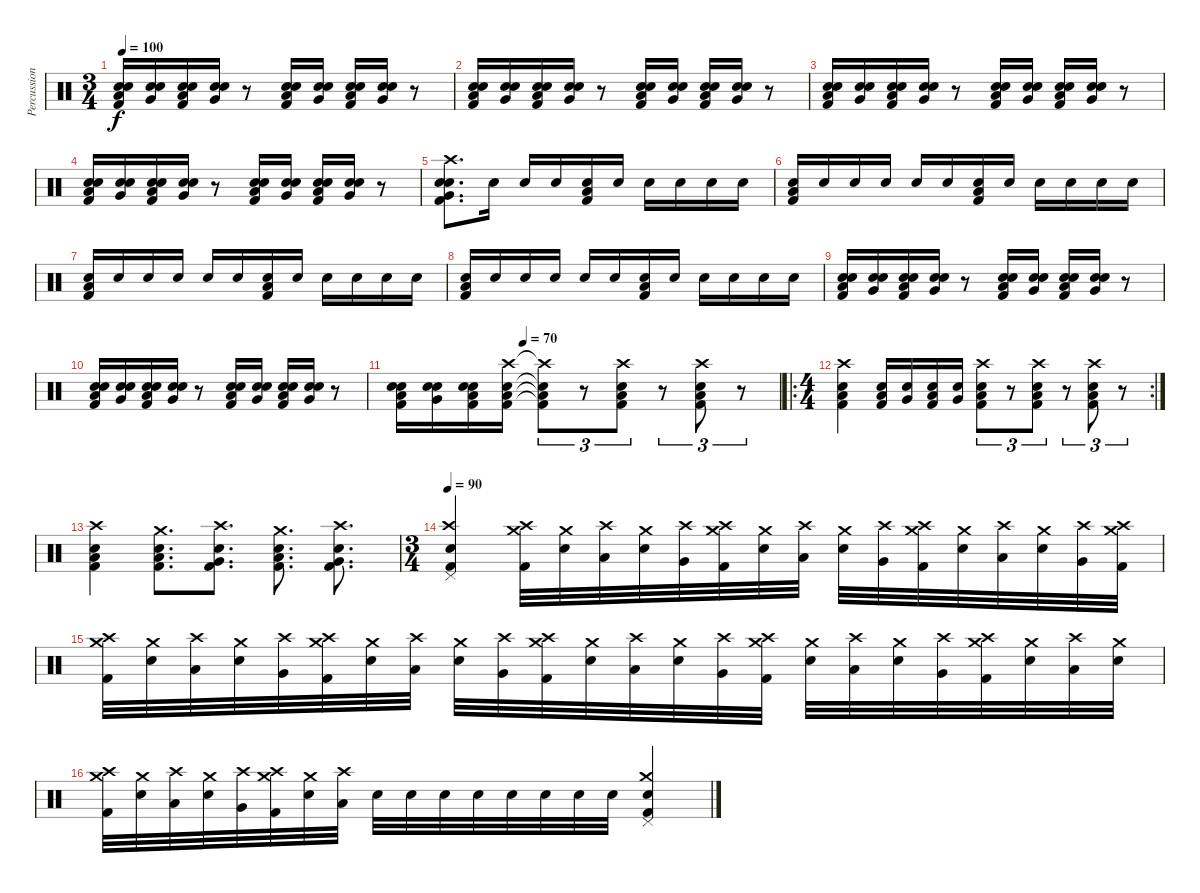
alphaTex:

\track ("Percussion" "Percussion") {instrument percussion}
\staff {score}
\articulation defaults
\ts (3 4)
\tempo 100
\clef neutral
\ks c
("Low Floor Tom (hit)" "Snare (hit) 2" "Electric Snare (hit)" "Kick (hit) 2").16{dy f} ("Very Low Tom (hit)" "Snare (hit) 2" "Electric Snare (hit)").16 ("Low Floor Tom (hit)" "Snare (hit) 2" "Electric Snare (hit)" "Kick (hit) 2").16 ("Very Low Tom (hit)" "Snare (hit) 2" "Electric Snare (hit)").16 r.8 ("Low Floor Tom (hit)" "Snare (hit) 2" "Electric Snare (hit)" "Kick (hit) 2").16 ("Very Low Tom (hit)" "Snare (hit) 2" "Electric Snare (hit)").16 ("Low Floor Tom (hit)" "Snare (hit) 2" "Electric Snare (hit)" "Kick (hit) 2").16 ("Very Low Tom (hit)" "Snare (hit) 2" "Electric Snare (hit)").16 r.8 |
("Low Floor Tom (hit)" "Snare (hit) 2" "Electric Snare (hit)" "Kick (hit) 2").16 ("Very Low Tom (hit)" "Snare (hit) 2" "Electric Snare (hit)").16 ("Low Floor Tom (hit)" "Snare (hit) 2" "Electric Snare (hit)" "Kick (hit) 2").16 ("Very Low Tom (hit)" "Snare (hit) 2" "Electric Snare (hit)").16 r.8 ("Low Floor Tom (hit)" "Snare (hit) 2" "Electric Snare (hit)" "Kick (hit) 2").16 ("Very Low Tom (hit)" "Snare (hit) 2" "Electric Snare (hit)").16 ("Low Floor Tom (hit)" "Snare (hit) 2" "Electric Snare (hit)" "Kick (hit) 2").16 ("Very Low Tom (hit)" "Snare (hit) 2" "Electric Snare (hit)").16 r.8 |
("Low Floor Tom (hit)" "Snare (hit) 2" "Electric Snare (hit)" "Kick (hit) 2").16 ("Very Low Tom (hit)" "Snare (hit) 2" "Electric Snare (hit)").16 ("Low Floor Tom (hit)" "Snare (hit) 2" "Electric Snare (hit)" "Kick (hit) 2").16 ("Very Low Tom (hit)" "Snare (hit) 2" "Electric Snare (hit)").16 r.8 ("Low Floor Tom (hit)" "Snare (hit) 2" "Electric Snare (hit)" "Kick (hit) 2").16 ("Very Low Tom (hit)" "Snare (hit) 2" "Electric Snare (hit)").16 ("Low Floor Tom (hit)" "Snare (hit) 2" "Electric Snare (hit)" "Kick (hit) 2").16 ("Very Low Tom (hit)" "Snare (hit) 2" "Electric Snare (hit)").16 r.8 |
("Low Floor Tom (hit)" "Snare (hit) 2" "Electric Snare (hit)" "Kick (hit) 2").16 ("Very Low Tom (hit)" "Snare (hit) 2" "Electric Snare (hit)").16 ("Low Floor Tom (hit)" "Snare (hit) 2" "Electric Snare (hit)" "Kick (hit) 2").16 ("Very Low Tom (hit)" "Snare (hit) 2" "Electric Snare (hit)").16 r.8 ("Low Floor Tom (hit)" "Snare (hit) 2" "Electric Snare (hit)" "Kick (hit) 2").16 ("Very Low Tom (hit)" "Snare (hit) 2" "Electric Snare (hit)").16 ("Low Floor Tom (hit)" "Snare (hit) 2" "Electric Snare (hit)" "Kick (hit) 2").16 ("Very Low Tom (hit)" "Snare (hit) 2" "Electric Snare (hit)").16 r.8 |
("Crash high (hit)" "Very Low Tom (hit)" "Snare (hit) 2" "Electric Snare (hit)" "Kick (hit) 2").8{d} "Snare (hit) 2".16 "Snare (hit) 2".16 "Snare (hit) 2".16 ("Low Floor Tom (hit)" "Snare (hit) 2" "Kick (hit) 2").16 "Snare (hit) 2".16 "Snare (hit) 2".16 "Snare (hit) 2".16 "Snare (hit) 2".16 "Snare (hit) 2".16 |
("Low Floor Tom (hit)" "Snare (hit) 2" "Kick (hit) 2").16 "Snare (hit) 2".16 "Snare (hit) 2".16 "Snare (hit) 2".16 "Snare (hit) 2".16 "Snare (hit) 2".16 ("Low Floor Tom (hit)" "Snare (hit) 2" "Kick (hit) 2").16 "Snare (hit) 2".16 "Snare (hit) 2".16 "Snare (hit) 2".16 "Snare (hit) 2".16 "Snare (hit) 2".16 |
("Low Floor Tom (hit)" "Snare (hit) 2" "Kick (hit) 2").16 "Snare (hit) 2".16 "Snare (hit) 2".16 "Snare (hit) 2".16 "Snare (hit) 2".16 "Snare (hit) 2".16 ("Low Floor Tom (hit)" "Snare (hit) 2" "Kick (hit) 2").16 "Snare (hit) 2".16 "Snare (hit) 2".16 "Snare (hit) 2".16 "Snare (hit) 2".16 "Snare (hit) 2".16 |
("Low Floor Tom (hit)" "Snare (hit) 2" "Kick (hit) 2").16 "Snare (hit) 2".16 "Snare (hit) 2".16 "Snare (hit) 2".16 "Snare (hit) 2".16 "Snare (hit) 2".16 ("Low Floor Tom (hit)" "Snare (hit) 2" "Kick (hit) 2").16 "Snare (hit) 2".16 "Snare (hit) 2".16 "Snare (hit) 2".16 "Snare (hit) 2".16 "Snare (hit) 2".16 |
("Low Floor Tom (hit)" "Snare (hit) 2" "Electric Snare (hit)" "Kick (hit) 2").16 ("Very Low Tom (hit)" "Snare (hit) 2" "Electric Snare (hit)").16 ("Low Floor Tom (hit)" "Snare (hit) 2" "Electric Snare (hit)" "Kick (hit) 2").16 ("Very Low Tom (hit)" "Snare (hit) 2" "Electric Snare (hit)").16 r.8 ("Low Floor Tom (hit)" "Snare (hit) 2" "Electric Snare (hit)" "Kick (hit) 2").16 ("Very Low Tom (hit)" "Snare (hit) 2" "Electric Snare (hit)").16 ("Low Floor Tom (hit)" "Snare (hit) 2" "Electric Snare (hit)" "Kick (hit) 2").16 ("Very Low Tom (hit)" "Snare (hit) 2" "Electric Snare (hit)").16 r.8 |
("Low Floor Tom (hit)" "Snare (hit) 2" "Electric Snare (hit)" "Kick (hit) 2").16 ("Very Low Tom (hit)" "Snare (hit) 2" "Electric Snare (hit)").16 ("Low Floor Tom (hit)" "Snare (hit) 2" "Electric Snare (hit)" "Kick (hit) 2").16 ("Very Low Tom (hit)" "Snare (hit) 2" "Electric Snare (hit)").16 r.8 ("Low Floor Tom (hit)" "Snare (hit) 2" "Electric Snare (hit)" "Kick (hit) 2").16 ("Very Low Tom (hit)" "Snare (hit) 2" "Electric Snare (hit)").16 ("Low Floor Tom (hit)" "Snare (hit) 2" "Electric Snare (hit)" "Kick (hit) 2").16 ("Very Low Tom (hit)" "Snare (hit) 2" "Electric Snare (hit)").16 r.8 |
\tempo (70 0.3333333333333333)
("Low Floor Tom (hit)" "Snare (hit) 2" "Electric Snare (hit)" "Kick (hit) 2").16 ("Very Low Tom (hit)" "Snare (hit) 2" "Electric Snare (hit)").16 ("Low Floor Tom (hit)" "Snare (hit) 2" "Electric Snare (hit)" "Kick (hit) 2").16 ("Crash high (hit)" "Low Floor Tom (hit)" "Snare (hit) 2" "Kick (hit) 2").16 ("Crash high (hit)"{t} "Low Floor Tom (hit)"{t} "Snare (hit) 2"{t} "Kick (hit) 2"{t}).8{tu (3 2)} r.8{tu (3 2)} ("Crash high (hit)" "Low Floor Tom (hit)" "Snare (hit) 2" "Kick (hit) 2").8{tu (3 2)} r.8{tu (3 2)} ("Crash high (hit)" "Low Floor Tom (hit)" "Snare (hit) 2" "Kick (hit) 2").8{tu (3 2)} r.8{tu (3 2)} |
\ro
\rc 2
\ts (4 4)
("Crash high (hit)" "Low Floor Tom (hit)" "Snare (hit) 2" "Kick (hit) 2").4 ("Low Floor Tom (hit)" "Snare (hit) 2" "Kick (hit) 2").16 ("Very Low Tom (hit)" "Snare (hit) 2").16 ("Low Floor Tom (hit)" "Snare (hit) 2" "Kick (hit) 2").16 ("Very Low Tom (hit)" "Snare (hit) 2").16 ("Crash high (hit)" "Low Floor Tom (hit)" "Snare (hit) 2" "Kick (hit) 2").8{tu (3 2)} r.8{tu (3 2)} ("Crash high (hit)" "Low Floor Tom (hit)" "Snare (hit) 2" "Kick (hit) 2").8{tu (3 2)} r.8{tu (3 2)} ("Crash high (hit)" "Low Floor Tom (hit)" "Snare (hit) 2" "Kick (hit) 2").8{tu (3 2)} r.8{tu (3 2)} |
("Crash high (hit)" "Low Floor Tom (hit)" "Snare (hit) 2" "Kick (hit) 2").4 ("Crash medium (hit)" "Low Floor Tom (hit)" "Snare (hit) 2" "Kick (hit) 2").8{d} ("Crash high (hit)" "Very Low Tom (hit)" "Snare (hit) 2" "Kick (hit) 2").8{d} ("Crash medium (hit)" "Low Floor Tom (hit)" "Snare (hit) 2" "Kick (hit) 2").8{d} ("Crash high (hit)" "Very Low Tom (hit)" "Snare (hit) 2" "Kick (hit) 2").8{d} |
\ts (3 4)
\tempo 90
("Crash high (hit)" "Pedal Hi-Hat (hit)" "Snare (hit) 2" "Kick (hit) 2").4 ("Crash high (hit)" "Crash medium (hit)" "Kick (hit) 2").32 ("Crash medium (hit)" "Snare (hit) 2").32 ("Crash high (hit)" "Low Floor Tom (hit)").32 ("Crash medium (hit)" "Snare (hit) 2").32 ("Crash high (hit)" "Very Low Tom (hit)").32 ("Crash high (hit)" "Crash medium (hit)" "Kick (hit) 2").32 ("Crash medium (hit)" "Snare (hit) 2").32 ("Crash high (hit)" "Low Floor Tom (hit)").32 ("Crash medium (hit)" "Snare (hit) 2").32 ("Crash high (hit)" "Very Low Tom (hit)").32 ("Crash high (hit)" "Crash medium (hit)" "Kick (hit) 2").32 ("Crash medium (hit)" "Snare (hit) 2").32 ("Crash high (hit)" "Low Floor Tom (hit)").32 ("Crash medium (hit)" "Snare (hit) 2").32 ("Crash high (hit)" "Very Low Tom (hit)").32 ("Crash high (hit)" "Crash medium (hit)" "Kick (hit) 2").32 |
("Crash high (hit)" "Crash medium (hit)" "Kick (hit) 2").32 ("Crash medium (hit)" "Snare (hit) 2").32 ("Crash high (hit)" "Low Floor Tom (hit)").32 ("Crash medium (hit)" "Snare (hit) 2").32 ("Crash high (hit)" "Very Low Tom (hit)").32 ("Crash high (hit)" "Crash medium (hit)" "Kick (hit) 2").32 ("Crash medium (hit)" "Snare (hit) 2").32 ("Crash high (hit)" "Low Floor Tom (hit)").32 ("Crash medium (hit)" "Snare (hit) 2").32 ("Crash high (hit)" "Very Low Tom (hit)").32 ("Crash high (hit)" "Crash medium (hit)" "Kick (hit) 2").32 ("Crash medium (hit)" "Snare (hit) 2").32 ("Crash high (hit)" "Low Floor Tom (hit)").32 ("Crash medium (hit)" "Snare (hit) 2").32 ("Crash high (hit)" "Very Low Tom (hit)").32 ("Crash high (hit)" "Crash medium (hit)" "Kick (hit) 2").32 ("Crash medium (hit)" "Snare (hit) 2").32 ("Crash high (hit)" "Low Floor Tom (hit)").32 ("Crash medium (hit)" "Snare (hit) 2").32 ("Crash high (hit)" "Very Low Tom (hit)").32 ("Crash high (hit)" "Crash medium (hit)" "Kick (hit) 2").32 ("Crash medium (hit)" "Snare (hit) 2").32 ("Crash high (hit)" "Low Floor Tom (hit)").32 ("Crash medium (hit)" "Snare (hit) 2").32 |
("Crash high (hit)" "Crash medium (hit)" "Kick (hit) 2").32 ("Crash medium (hit)" "Snare (hit) 2").32 ("Crash high (hit)" "Low Floor Tom (hit)").32 ("Crash medium (hit)" "Snare (hit) 2").32 ("Crash high (hit)" "Very Low Tom (hit)").32 ("Crash high (hit)" "Crash medium (hit)" "Kick (hit) 2").32 ("Crash medium (hit)" "Snare (hit) 2").32 ("Crash high (hit)" "Low Floor Tom (hit)").32 "Snare (hit) 2".32 "Snare (hit) 2".32 "Snare (hit) 2".32 "Snare (hit) 2".32 "Snare (hit) 2".32 "Snare (hit) 2".32 "Snare (hit) 2".32 "Snare (hit) 2".32 ("Crash medium (hit)" "Pedal Hi-Hat (hit)" "Snare (hit) 2" "Kick (hit) 2").4
